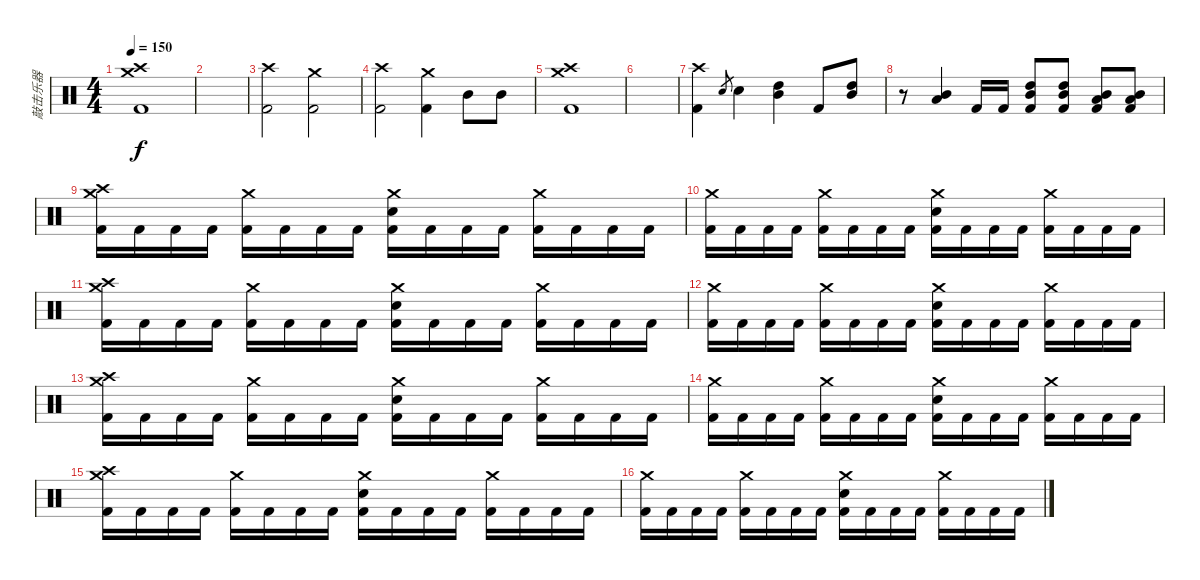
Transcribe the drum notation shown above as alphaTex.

\track ("敲击乐器" "敲击乐器") {instrument percussion}
\staff {score}
\articulation defaults
\ts (4 4)
\tempo 150
\clef neutral
\ks c
("Crash medium (hit)" "Crash high (hit)" "Kick (hit) 2").1{dy f} |
|
("Kick (hit) 2" "Crash high (hit)").2 ("Kick (hit) 2" "Crash medium (hit)").2 |
("Kick (hit) 2" "Crash high (hit)").2 ("Kick (hit) 2" "Crash medium (hit)").4 "Mid Tom (hit)".8 "Mid Tom (hit)".8 |
("Crash medium (hit)" "Crash high (hit)" "Kick (hit) 2").1 |
|
("Kick (hit) 2" "Crash high (hit)").4 "Snare (hit) 2".8{gr} "Snare (hit) 2".4 ("High Tom (hit)" "Mid Tom (hit)").4 "Kick (hit) 2".8 ("Mid Tom (hit)" "High Tom (hit)").8 |
r.8 ("Mid Tom (hit)" "Low Tom (hit)").4 "Kick (hit) 2".16 "Kick (hit) 2".16 ("Kick (hit) 2" "High Tom (hit)" "Mid Tom (hit)").8 ("Kick (hit) 2" "High Tom (hit)" "Mid Tom (hit)").8 ("Kick (hit) 2" "Mid Tom (hit)" "Low Tom (hit)").8 ("Kick (hit) 2" "Mid Tom (hit)" "Low Tom (hit)").8 |
("Crash high (hit)" "Crash medium (hit)" "Kick (hit) 2").16 "Kick (hit) 2".16 "Kick (hit) 2".16 "Kick (hit) 2".16 ("Crash medium (hit)" "Kick (hit) 2").16 "Kick (hit) 2".16 "Kick (hit) 2".16 "Kick (hit) 2".16 ("Crash medium (hit)" "Snare (hit) 2" "Kick (hit) 2").16 "Kick (hit) 2".16 "Kick (hit) 2".16 "Kick (hit) 2".16 ("Crash medium (hit)" "Kick (hit) 2").16 "Kick (hit) 2".16 "Kick (hit) 2".16 "Kick (hit) 2".16 |
("Crash medium (hit)" "Kick (hit) 2").16 "Kick (hit) 2".16 "Kick (hit) 2".16 "Kick (hit) 2".16 ("Crash medium (hit)" "Kick (hit) 2").16 "Kick (hit) 2".16 "Kick (hit) 2".16 "Kick (hit) 2".16 ("Crash medium (hit)" "Snare (hit) 2" "Kick (hit) 2").16 "Kick (hit) 2".16 "Kick (hit) 2".16 "Kick (hit) 2".16 ("Crash medium (hit)" "Kick (hit) 2").16 "Kick (hit) 2".16 "Kick (hit) 2".16 "Kick (hit) 2".16 |
("Crash high (hit)" "Crash medium (hit)" "Kick (hit) 2").16 "Kick (hit) 2".16 "Kick (hit) 2".16 "Kick (hit) 2".16 ("Crash medium (hit)" "Kick (hit) 2").16 "Kick (hit) 2".16 "Kick (hit) 2".16 "Kick (hit) 2".16 ("Crash medium (hit)" "Snare (hit) 2" "Kick (hit) 2").16 "Kick (hit) 2".16 "Kick (hit) 2".16 "Kick (hit) 2".16 ("Crash medium (hit)" "Kick (hit) 2").16 "Kick (hit) 2".16 "Kick (hit) 2".16 "Kick (hit) 2".16 |
("Crash medium (hit)" "Kick (hit) 2").16 "Kick (hit) 2".16 "Kick (hit) 2".16 "Kick (hit) 2".16 ("Crash medium (hit)" "Kick (hit) 2").16 "Kick (hit) 2".16 "Kick (hit) 2".16 "Kick (hit) 2".16 ("Crash medium (hit)" "Snare (hit) 2" "Kick (hit) 2").16 "Kick (hit) 2".16 "Kick (hit) 2".16 "Kick (hit) 2".16 ("Crash medium (hit)" "Kick (hit) 2").16 "Kick (hit) 2".16 "Kick (hit) 2".16 "Kick (hit) 2".16 |
("Crash high (hit)" "Crash medium (hit)" "Kick (hit) 2").16 "Kick (hit) 2".16 "Kick (hit) 2".16 "Kick (hit) 2".16 ("Crash medium (hit)" "Kick (hit) 2").16 "Kick (hit) 2".16 "Kick (hit) 2".16 "Kick (hit) 2".16 ("Crash medium (hit)" "Snare (hit) 2" "Kick (hit) 2").16 "Kick (hit) 2".16 "Kick (hit) 2".16 "Kick (hit) 2".16 ("Crash medium (hit)" "Kick (hit) 2").16 "Kick (hit) 2".16 "Kick (hit) 2".16 "Kick (hit) 2".16 |
("Crash medium (hit)" "Kick (hit) 2").16 "Kick (hit) 2".16 "Kick (hit) 2".16 "Kick (hit) 2".16 ("Crash medium (hit)" "Kick (hit) 2").16 "Kick (hit) 2".16 "Kick (hit) 2".16 "Kick (hit) 2".16 ("Crash medium (hit)" "Snare (hit) 2" "Kick (hit) 2").16 "Kick (hit) 2".16 "Kick (hit) 2".16 "Kick (hit) 2".16 ("Crash medium (hit)" "Kick (hit) 2").16 "Kick (hit) 2".16 "Kick (hit) 2".16 "Kick (hit) 2".16 |
("Crash high (hit)" "Crash medium (hit)" "Kick (hit) 2").16 "Kick (hit) 2".16 "Kick (hit) 2".16 "Kick (hit) 2".16 ("Crash medium (hit)" "Kick (hit) 2").16 "Kick (hit) 2".16 "Kick (hit) 2".16 "Kick (hit) 2".16 ("Crash medium (hit)" "Snare (hit) 2" "Kick (hit) 2").16 "Kick (hit) 2".16 "Kick (hit) 2".16 "Kick (hit) 2".16 ("Crash medium (hit)" "Kick (hit) 2").16 "Kick (hit) 2".16 "Kick (hit) 2".16 "Kick (hit) 2".16 |
("Crash medium (hit)" "Kick (hit) 2").16 "Kick (hit) 2".16 "Kick (hit) 2".16 "Kick (hit) 2".16 ("Crash medium (hit)" "Kick (hit) 2").16 "Kick (hit) 2".16 "Kick (hit) 2".16 "Kick (hit) 2".16 ("Crash medium (hit)" "Snare (hit) 2" "Kick (hit) 2").16 "Kick (hit) 2".16 "Kick (hit) 2".16 "Kick (hit) 2".16 ("Crash medium (hit)" "Kick (hit) 2").16 "Kick (hit) 2".16 "Kick (hit) 2".16 "Kick (hit) 2".16
